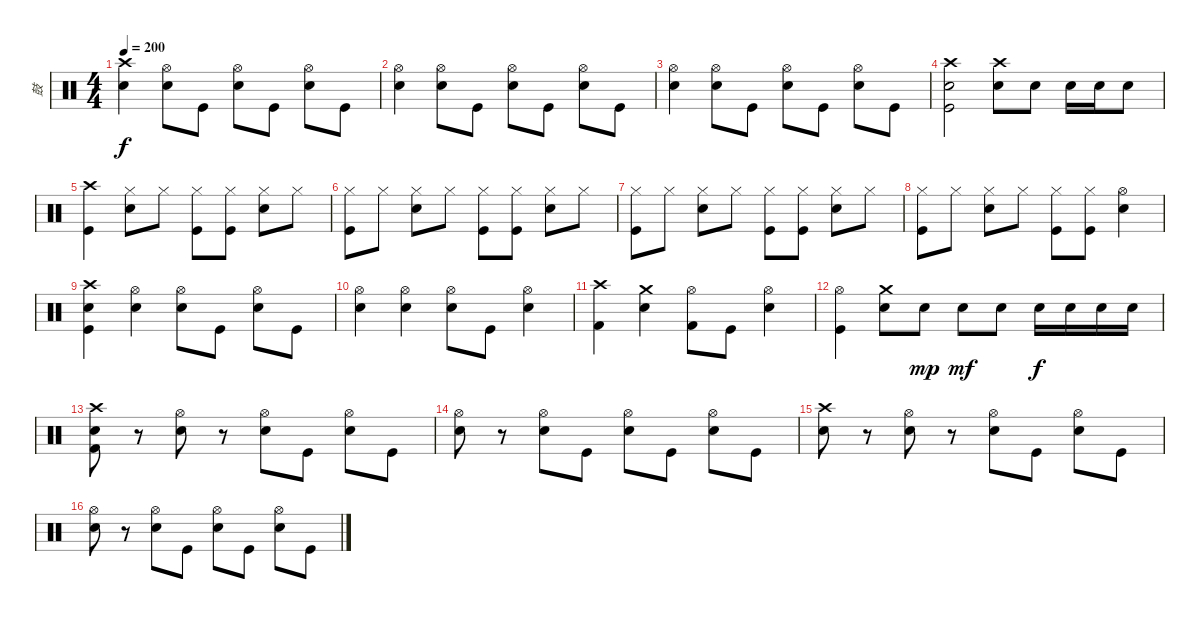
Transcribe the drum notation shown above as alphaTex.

\track ("鼓" "鼓") {instrument percussion}
\staff {score}
\articulation defaults
\ts (4 4)
\tempo 200
\clef neutral
\ks c
("Crash high (hit)" "Snare (hit) 2").4{dy f} ("Hi-Hat (open)" "Snare (hit) 2").8 "Kick (hit)".8 ("Hi-Hat (open)" "Snare (hit) 2").8 "Kick (hit)".8 ("Hi-Hat (open)" "Snare (hit) 2").8 "Kick (hit)".8 |
("Hi-Hat (open)" "Snare (hit) 2").4 ("Hi-Hat (open)" "Snare (hit) 2").8 "Kick (hit)".8 ("Hi-Hat (open)" "Snare (hit) 2").8 "Kick (hit)".8 ("Hi-Hat (open)" "Snare (hit) 2").8 "Kick (hit)".8 |
("Hi-Hat (open)" "Snare (hit) 2").4 ("Hi-Hat (open)" "Snare (hit) 2").8 "Kick (hit)".8 ("Hi-Hat (open)" "Snare (hit) 2").8 "Kick (hit)".8 ("Hi-Hat (open)" "Snare (hit) 2").8 "Kick (hit)".8 |
("Crash high (hit)" "Snare (hit) 2" "Kick (hit)").2 ("Crash high (hit)" "Snare (hit) 2").8 "Snare (hit) 2".8 "Snare (hit) 2".16 "Snare (hit) 2".16 "Snare (hit) 2".8 |
("Crash high (hit)" "Kick (hit)").4 ("Hi-Hat (closed)" "Snare (hit) 2").8 "Hi-Hat (closed)".8 ("Hi-Hat (closed)" "Kick (hit)").8 ("Hi-Hat (closed)" "Kick (hit)").8 ("Hi-Hat (closed)" "Snare (hit) 2").8 "Hi-Hat (closed)".8 |
("Hi-Hat (closed)" "Kick (hit)").8 "Hi-Hat (closed)".8 ("Hi-Hat (closed)" "Snare (hit) 2").8 "Hi-Hat (closed)".8 ("Hi-Hat (closed)" "Kick (hit)").8 ("Hi-Hat (closed)" "Kick (hit)").8 ("Hi-Hat (closed)" "Snare (hit) 2").8 "Hi-Hat (closed)".8 |
("Hi-Hat (closed)" "Kick (hit)").8 "Hi-Hat (closed)".8 ("Hi-Hat (closed)" "Snare (hit) 2").8 "Hi-Hat (closed)".8 ("Hi-Hat (closed)" "Kick (hit)").8 ("Hi-Hat (closed)" "Kick (hit)").8 ("Hi-Hat (closed)" "Snare (hit) 2").8 "Hi-Hat (closed)".8 |
("Hi-Hat (closed)" "Kick (hit)").8 "Hi-Hat (closed)".8 ("Hi-Hat (closed)" "Snare (hit) 2").8 "Hi-Hat (closed)".8 ("Hi-Hat (closed)" "Kick (hit)").8 ("Hi-Hat (closed)" "Kick (hit)").8 ("Hi-Hat (open)" "Snare (hit) 2").4 |
("Crash high (hit)" "Snare (hit) 2" "Kick (hit)").4 ("Hi-Hat (open)" "Snare (hit) 2").4 ("Hi-Hat (open)" "Snare (hit) 2").8 "Kick (hit)".8 ("Hi-Hat (open)" "Snare (hit) 2").8 "Kick (hit)".8 |
("Hi-Hat (open)" "Snare (hit) 2").4 ("Hi-Hat (open)" "Snare (hit) 2").4 ("Hi-Hat (open)" "Snare (hit) 2").8 "Kick (hit)".8 ("Hi-Hat (open)" "Snare (hit) 2").4 |
("Crash high (hit)" "Kick (hit) 2").4 ("Crash medium (hit)" "Snare (hit) 2").4 ("Hi-Hat (open)" "Kick (hit) 2").8 "Kick (hit)".8 ("Hi-Hat (open)" "Snare (hit) 2").4 |
("Hi-Hat (open)" "Kick (hit)").4 ("Crash medium (hit)" "Snare (hit) 2").8 "Snare (hit) 2".8{dy mp} "Snare (hit) 2".8{dy mf} "Snare (hit) 2".8 "Snare (hit) 2".16{dy f} "Snare (hit) 2".16 "Snare (hit) 2".16 "Snare (hit) 2".16 |
("Crash high (hit)" "Snare (hit) 2" "Kick (hit) 2").8 r.8 ("Hi-Hat (open)" "Snare (hit) 2").8 r.8 ("Hi-Hat (open)" "Snare (hit) 2").8 "Kick (hit)".8 ("Hi-Hat (open)" "Snare (hit) 2").8 "Kick (hit)".8 |
("Hi-Hat (open)" "Snare (hit) 2").8 r.8 ("Hi-Hat (open)" "Snare (hit) 2").8 "Kick (hit)".8 ("Hi-Hat (open)" "Snare (hit) 2").8 "Kick (hit)".8 ("Hi-Hat (open)" "Snare (hit) 2").8 "Kick (hit)".8 |
("Crash high (hit)" "Snare (hit) 2").8 r.8 ("Hi-Hat (open)" "Snare (hit) 2").8 r.8 ("Hi-Hat (open)" "Snare (hit) 2").8 "Kick (hit)".8 ("Hi-Hat (open)" "Snare (hit) 2").8 "Kick (hit)".8 |
("Hi-Hat (open)" "Snare (hit) 2").8 r.8 ("Hi-Hat (open)" "Snare (hit) 2").8 "Kick (hit)".8 ("Hi-Hat (open)" "Snare (hit) 2").8 "Kick (hit)".8 ("Hi-Hat (open)" "Snare (hit) 2").8 "Kick (hit)".8
